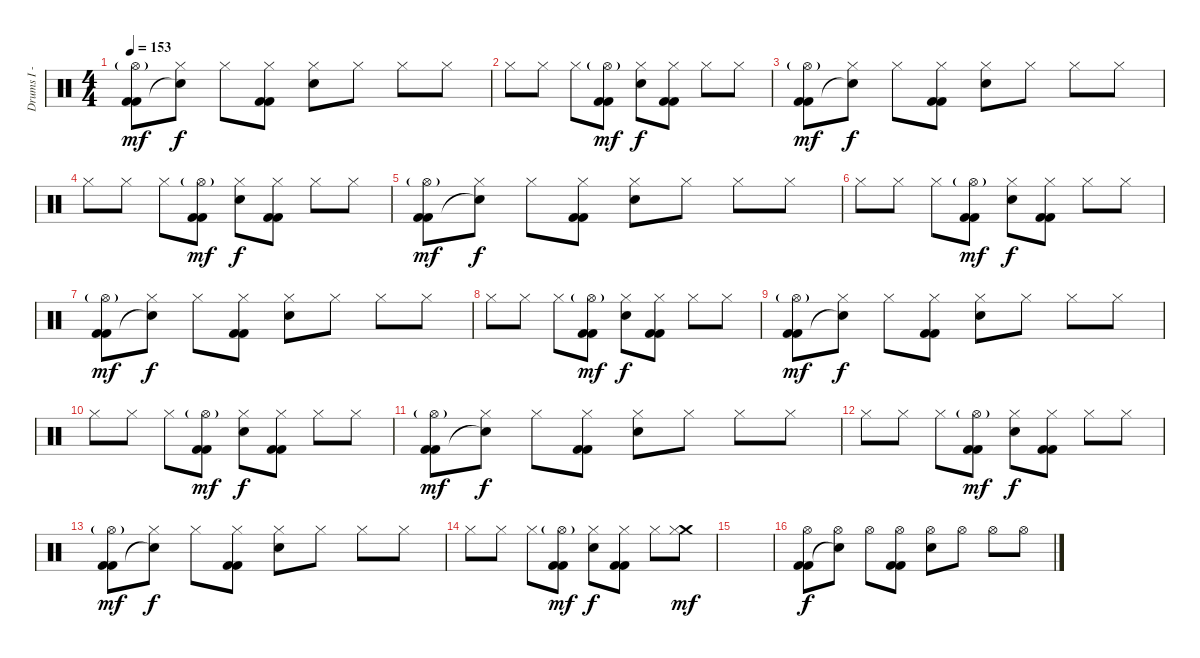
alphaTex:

\track ("Drums I - Adam" "Drums I - ") {instrument percussion}
\staff {score}
\articulation defaults
\ts (4 4)
\tempo 153
\clef neutral
\ks c
("Hi-Hat (open)"{g} "Kick (hit) 2" "Kick (hit) 2").8{dy mf} ("Hi-Hat (closed)" "Snare (hit)"{t}).8{dy f} "Hi-Hat (closed)".8 ("Hi-Hat (closed)" "Kick (hit) 2" "Kick (hit) 2").8 ("Hi-Hat (closed)" "Electric Snare (hit)").8 "Hi-Hat (closed)".8 "Hi-Hat (closed)".8 "Hi-Hat (closed)".8 |
"Hi-Hat (closed)".8 "Hi-Hat (closed)".8 "Hi-Hat (closed)".8 ("Hi-Hat (open)"{g} "Kick (hit) 2" "Kick (hit) 2").8{dy mf} ("Hi-Hat (closed)" "Electric Snare (hit)").8{dy f} ("Hi-Hat (closed)" "Kick (hit) 2" "Kick (hit) 2").8 "Hi-Hat (closed)".8 "Hi-Hat (closed)".8 |
("Hi-Hat (open)"{g} "Kick (hit) 2" "Kick (hit) 2").8{dy mf volume 13} ("Hi-Hat (closed)" "Snare (hit)"{t}).8{dy f} "Hi-Hat (closed)".8 ("Hi-Hat (closed)" "Kick (hit) 2" "Kick (hit) 2").8 ("Hi-Hat (closed)" "Electric Snare (hit)").8 "Hi-Hat (closed)".8 "Hi-Hat (closed)".8 "Hi-Hat (closed)".8 |
"Hi-Hat (closed)".8 "Hi-Hat (closed)".8 "Hi-Hat (closed)".8 ("Hi-Hat (open)"{g} "Kick (hit) 2" "Kick (hit) 2").8{dy mf} ("Hi-Hat (closed)" "Electric Snare (hit)").8{dy f} ("Hi-Hat (closed)" "Kick (hit) 2" "Kick (hit) 2").8 "Hi-Hat (closed)".8 "Hi-Hat (closed)".8 |
("Hi-Hat (open)"{g} "Kick (hit) 2" "Kick (hit) 2").8{dy mf} ("Hi-Hat (closed)" "Snare (hit)"{t}).8{dy f} "Hi-Hat (closed)".8 ("Hi-Hat (closed)" "Kick (hit) 2" "Kick (hit) 2").8 ("Hi-Hat (closed)" "Electric Snare (hit)").8 "Hi-Hat (closed)".8 "Hi-Hat (closed)".8 "Hi-Hat (closed)".8 |
"Hi-Hat (closed)".8 "Hi-Hat (closed)".8 "Hi-Hat (closed)".8 ("Hi-Hat (open)"{g} "Kick (hit) 2" "Kick (hit) 2").8{dy mf} ("Hi-Hat (closed)" "Electric Snare (hit)").8{dy f} ("Hi-Hat (closed)" "Kick (hit) 2" "Kick (hit) 2").8 "Hi-Hat (closed)".8 "Hi-Hat (closed)".8 |
("Hi-Hat (open)"{g} "Kick (hit) 2" "Kick (hit) 2").8{dy mf volume 13} ("Hi-Hat (closed)" "Snare (hit)"{t}).8{dy f} "Hi-Hat (closed)".8 ("Hi-Hat (closed)" "Kick (hit) 2" "Kick (hit) 2").8 ("Hi-Hat (closed)" "Electric Snare (hit)").8 "Hi-Hat (closed)".8 "Hi-Hat (closed)".8 "Hi-Hat (closed)".8 |
"Hi-Hat (closed)".8 "Hi-Hat (closed)".8 "Hi-Hat (closed)".8 ("Hi-Hat (open)"{g} "Kick (hit) 2" "Kick (hit) 2").8{dy mf} ("Hi-Hat (closed)" "Electric Snare (hit)").8{dy f} ("Hi-Hat (closed)" "Kick (hit) 2" "Kick (hit) 2").8 "Hi-Hat (closed)".8 "Hi-Hat (closed)".8 |
("Hi-Hat (open)"{g} "Kick (hit) 2" "Kick (hit) 2").8{dy mf} ("Hi-Hat (closed)" "Snare (hit)"{t}).8{dy f} "Hi-Hat (closed)".8 ("Hi-Hat (closed)" "Kick (hit) 2" "Kick (hit) 2").8 ("Hi-Hat (closed)" "Electric Snare (hit)").8 "Hi-Hat (closed)".8 "Hi-Hat (closed)".8 "Hi-Hat (closed)".8 |
"Hi-Hat (closed)".8 "Hi-Hat (closed)".8 "Hi-Hat (closed)".8 ("Hi-Hat (open)"{g} "Kick (hit) 2" "Kick (hit) 2").8{dy mf} ("Hi-Hat (closed)" "Electric Snare (hit)").8{dy f} ("Hi-Hat (closed)" "Kick (hit) 2" "Kick (hit) 2").8 "Hi-Hat (closed)".8 "Hi-Hat (closed)".8 |
("Hi-Hat (open)"{g} "Kick (hit) 2" "Kick (hit) 2").8{dy mf} ("Hi-Hat (closed)" "Snare (hit)"{t}).8{dy f} "Hi-Hat (closed)".8 ("Hi-Hat (closed)" "Kick (hit) 2" "Kick (hit) 2").8 ("Hi-Hat (closed)" "Electric Snare (hit)").8 "Hi-Hat (closed)".8 "Hi-Hat (closed)".8 "Hi-Hat (closed)".8 |
"Hi-Hat (closed)".8 "Hi-Hat (closed)".8 "Hi-Hat (closed)".8 ("Hi-Hat (open)"{g} "Kick (hit) 2" "Kick (hit) 2").8{dy mf} ("Hi-Hat (closed)" "Electric Snare (hit)").8{dy f} ("Hi-Hat (closed)" "Kick (hit) 2" "Kick (hit) 2").8 "Hi-Hat (closed)".8 "Hi-Hat (closed)".8 |
("Hi-Hat (open)"{g} "Kick (hit) 2" "Kick (hit) 2").8{dy mf} ("Hi-Hat (closed)" "Snare (hit)"{t}).8{dy f} "Hi-Hat (closed)".8 ("Hi-Hat (closed)" "Kick (hit) 2" "Kick (hit) 2").8 ("Hi-Hat (closed)" "Electric Snare (hit)").8 "Hi-Hat (closed)".8 "Hi-Hat (closed)".8 "Hi-Hat (closed)".8 |
"Hi-Hat (closed)".8 "Hi-Hat (closed)".8 "Hi-Hat (closed)".8 ("Hi-Hat (open)"{g} "Kick (hit) 2" "Kick (hit) 2").8{dy mf} ("Hi-Hat (closed)" "Electric Snare (hit)").8{dy f} ("Hi-Hat (closed)" "Kick (hit) 2" "Kick (hit) 2").8 "Hi-Hat (closed)".8 ("Crash medium (hit)" "Hi-Hat (closed)").8{dy mf} |
|
("Hi-Hat (open)" "Kick (hit) 2" "Kick (hit) 2").8{dy f} ("Hi-Hat (open)" "Snare (hit)"{t}).8 "Hi-Hat (open)".8 ("Hi-Hat (open)" "Kick (hit) 2" "Kick (hit) 2").8 ("Hi-Hat (open)" "Electric Snare (hit)").8 "Hi-Hat (open)".8 "Hi-Hat (open)".8 "Hi-Hat (open)".8
